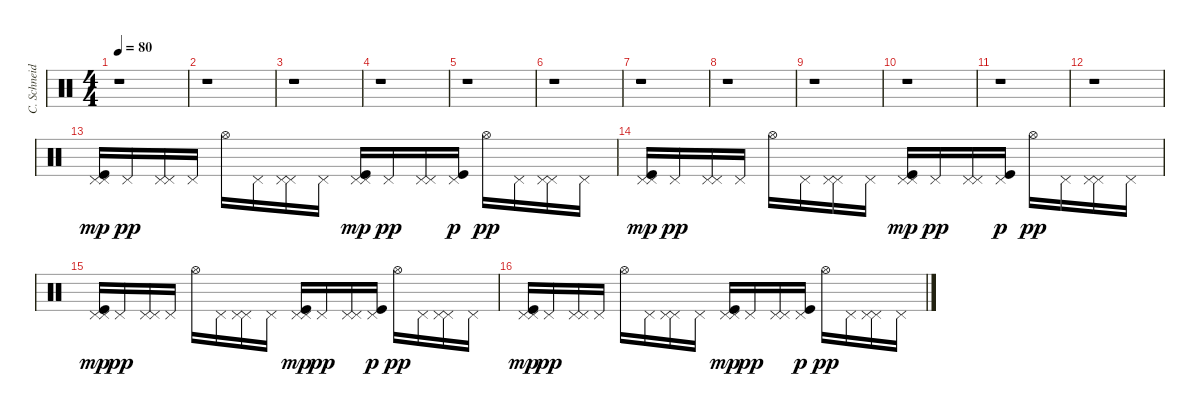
\track ("C. Schneider" "C. Schneid") {instrument percussion}
\staff {score}
\articulation defaults
\ts (4 4)
\tempo 80
\clef neutral
\ks c
r.1{dy mp} |
r.1 |
r.1 |
r.1 |
r.1 |
r.1 |
r.1 |
r.1 |
r.1 |
r.1 |
r.1 |
r.1 |
("Pedal Hi-Hat (hit)" "Pedal Hi-Hat (hit)" "Kick (hit)").16{volume 11} "Pedal Hi-Hat (hit)".16{dy pp} ("Pedal Hi-Hat (hit)" "Pedal Hi-Hat (hit)").16 "Pedal Hi-Hat (hit)".16 "Hi-Hat (open)".16 "Pedal Hi-Hat (hit)".16 ("Pedal Hi-Hat (hit)" "Pedal Hi-Hat (hit)").16 "Pedal Hi-Hat (hit)".16 ("Pedal Hi-Hat (hit)" "Pedal Hi-Hat (hit)" "Kick (hit)").16{dy mp} "Pedal Hi-Hat (hit)".16{dy pp} ("Pedal Hi-Hat (hit)" "Pedal Hi-Hat (hit)").16 ("Pedal Hi-Hat (hit)" "Kick (hit)").16{dy p} "Hi-Hat (open)".16{dy pp} "Pedal Hi-Hat (hit)".16 ("Pedal Hi-Hat (hit)" "Pedal Hi-Hat (hit)").16 "Pedal Hi-Hat (hit)".16 |
("Pedal Hi-Hat (hit)" "Pedal Hi-Hat (hit)" "Kick (hit)").16{dy mp} "Pedal Hi-Hat (hit)".16{dy pp} ("Pedal Hi-Hat (hit)" "Pedal Hi-Hat (hit)").16 "Pedal Hi-Hat (hit)".16 "Hi-Hat (open)".16 "Pedal Hi-Hat (hit)".16 ("Pedal Hi-Hat (hit)" "Pedal Hi-Hat (hit)").16 "Pedal Hi-Hat (hit)".16 ("Pedal Hi-Hat (hit)" "Pedal Hi-Hat (hit)" "Kick (hit)").16{dy mp} "Pedal Hi-Hat (hit)".16{dy pp} ("Pedal Hi-Hat (hit)" "Pedal Hi-Hat (hit)").16 ("Pedal Hi-Hat (hit)" "Kick (hit)").16{dy p} "Hi-Hat (open)".16{dy pp} "Pedal Hi-Hat (hit)".16 ("Pedal Hi-Hat (hit)" "Pedal Hi-Hat (hit)").16 "Pedal Hi-Hat (hit)".16 |
("Pedal Hi-Hat (hit)" "Pedal Hi-Hat (hit)" "Kick (hit)").16{dy mp} "Pedal Hi-Hat (hit)".16{dy pp} ("Pedal Hi-Hat (hit)" "Pedal Hi-Hat (hit)").16 "Pedal Hi-Hat (hit)".16 "Hi-Hat (open)".16 "Pedal Hi-Hat (hit)".16 ("Pedal Hi-Hat (hit)" "Pedal Hi-Hat (hit)").16 "Pedal Hi-Hat (hit)".16 ("Pedal Hi-Hat (hit)" "Pedal Hi-Hat (hit)" "Kick (hit)").16{dy mp} "Pedal Hi-Hat (hit)".16{dy pp} ("Pedal Hi-Hat (hit)" "Pedal Hi-Hat (hit)").16 ("Pedal Hi-Hat (hit)" "Kick (hit)").16{dy p} "Hi-Hat (open)".16{dy pp} "Pedal Hi-Hat (hit)".16 ("Pedal Hi-Hat (hit)" "Pedal Hi-Hat (hit)").16 "Pedal Hi-Hat (hit)".16 |
("Pedal Hi-Hat (hit)" "Pedal Hi-Hat (hit)" "Kick (hit)").16{dy mp} "Pedal Hi-Hat (hit)".16{dy pp} ("Pedal Hi-Hat (hit)" "Pedal Hi-Hat (hit)").16 "Pedal Hi-Hat (hit)".16 "Hi-Hat (open)".16 "Pedal Hi-Hat (hit)".16 ("Pedal Hi-Hat (hit)" "Pedal Hi-Hat (hit)").16 "Pedal Hi-Hat (hit)".16 ("Pedal Hi-Hat (hit)" "Pedal Hi-Hat (hit)" "Kick (hit)").16{dy mp} "Pedal Hi-Hat (hit)".16{dy pp} ("Pedal Hi-Hat (hit)" "Pedal Hi-Hat (hit)").16 ("Pedal Hi-Hat (hit)" "Kick (hit)").16{dy p} "Hi-Hat (open)".16{dy pp} "Pedal Hi-Hat (hit)".16 ("Pedal Hi-Hat (hit)" "Pedal Hi-Hat (hit)").16 "Pedal Hi-Hat (hit)".16
